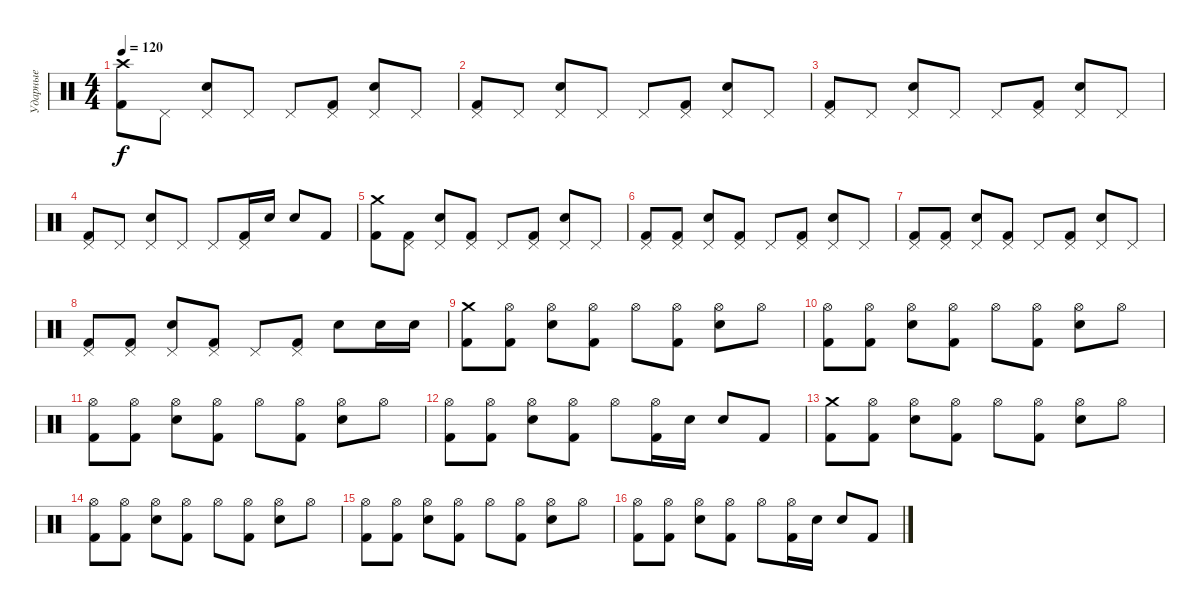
\track ("Ударные" "Ударные") {instrument percussion}
\staff {score}
\articulation defaults
\ts (4 4)
\tempo 120
\clef neutral
\ks c
("Crash high (hit)" "Kick (hit) 2").8{dy f} "Pedal Hi-Hat (hit)".8 ("Pedal Hi-Hat (hit)" "Snare (hit) 2").8 "Pedal Hi-Hat (hit)".8 "Pedal Hi-Hat (hit)".8 ("Pedal Hi-Hat (hit)" "Kick (hit) 2").8 ("Pedal Hi-Hat (hit)" "Snare (hit) 2").8 "Pedal Hi-Hat (hit)".8 |
("Pedal Hi-Hat (hit)" "Kick (hit) 2").8 "Pedal Hi-Hat (hit)".8 ("Pedal Hi-Hat (hit)" "Snare (hit) 2").8 "Pedal Hi-Hat (hit)".8 "Pedal Hi-Hat (hit)".8 ("Pedal Hi-Hat (hit)" "Kick (hit) 2").8 ("Pedal Hi-Hat (hit)" "Snare (hit) 2").8 "Pedal Hi-Hat (hit)".8 |
("Pedal Hi-Hat (hit)" "Kick (hit) 2").8 "Pedal Hi-Hat (hit)".8 ("Pedal Hi-Hat (hit)" "Snare (hit) 2").8 "Pedal Hi-Hat (hit)".8 "Pedal Hi-Hat (hit)".8 ("Pedal Hi-Hat (hit)" "Kick (hit) 2").8 ("Pedal Hi-Hat (hit)" "Snare (hit) 2").8 "Pedal Hi-Hat (hit)".8 |
("Pedal Hi-Hat (hit)" "Kick (hit) 2").8 "Pedal Hi-Hat (hit)".8 ("Pedal Hi-Hat (hit)" "Snare (hit) 2").8 "Pedal Hi-Hat (hit)".8 "Pedal Hi-Hat (hit)".8 ("Pedal Hi-Hat (hit)" "Kick (hit) 2").16 "Snare (hit) 2".16 "Snare (hit) 2".8 "Kick (hit) 2".8 |
("Crash medium (hit)" "Kick (hit) 2").8 ("Pedal Hi-Hat (hit)" "Kick (hit) 2").8 ("Pedal Hi-Hat (hit)" "Snare (hit) 2").8 ("Pedal Hi-Hat (hit)" "Kick (hit) 2").8 "Pedal Hi-Hat (hit)".8 ("Pedal Hi-Hat (hit)" "Kick (hit) 2").8 ("Pedal Hi-Hat (hit)" "Snare (hit) 2").8 "Pedal Hi-Hat (hit)".8 |
("Pedal Hi-Hat (hit)" "Kick (hit) 2").8 ("Pedal Hi-Hat (hit)" "Kick (hit) 2").8 ("Pedal Hi-Hat (hit)" "Snare (hit) 2").8 ("Pedal Hi-Hat (hit)" "Kick (hit) 2").8 "Pedal Hi-Hat (hit)".8 ("Pedal Hi-Hat (hit)" "Kick (hit) 2").8 ("Pedal Hi-Hat (hit)" "Snare (hit) 2").8 "Pedal Hi-Hat (hit)".8 |
("Pedal Hi-Hat (hit)" "Kick (hit) 2").8 ("Pedal Hi-Hat (hit)" "Kick (hit) 2").8 ("Pedal Hi-Hat (hit)" "Snare (hit) 2").8 ("Pedal Hi-Hat (hit)" "Kick (hit) 2").8 "Pedal Hi-Hat (hit)".8 ("Pedal Hi-Hat (hit)" "Kick (hit) 2").8 ("Pedal Hi-Hat (hit)" "Snare (hit) 2").8 "Pedal Hi-Hat (hit)".8 |
("Pedal Hi-Hat (hit)" "Kick (hit) 2").8 ("Pedal Hi-Hat (hit)" "Kick (hit) 2").8 ("Pedal Hi-Hat (hit)" "Snare (hit) 2").8 ("Pedal Hi-Hat (hit)" "Kick (hit) 2").8 "Pedal Hi-Hat (hit)".8 ("Pedal Hi-Hat (hit)" "Kick (hit) 2").8 "Snare (hit) 2".8 "Snare (hit) 2".16 "Snare (hit) 2".16 |
("Crash medium (hit)" "Kick (hit) 2").8 ("Hi-Hat (open)" "Kick (hit) 2").8 ("Hi-Hat (open)" "Snare (hit) 2").8 ("Hi-Hat (open)" "Kick (hit) 2").8 "Hi-Hat (open)".8 ("Hi-Hat (open)" "Kick (hit) 2").8 ("Hi-Hat (open)" "Snare (hit) 2").8 "Hi-Hat (open)".8 |
("Hi-Hat (open)" "Kick (hit) 2").8 ("Hi-Hat (open)" "Kick (hit) 2").8 ("Hi-Hat (open)" "Snare (hit) 2").8 ("Hi-Hat (open)" "Kick (hit) 2").8 "Hi-Hat (open)".8 ("Hi-Hat (open)" "Kick (hit) 2").8 ("Hi-Hat (open)" "Snare (hit) 2").8 "Hi-Hat (open)".8 |
("Hi-Hat (open)" "Kick (hit) 2").8 ("Hi-Hat (open)" "Kick (hit) 2").8 ("Hi-Hat (open)" "Snare (hit) 2").8 ("Hi-Hat (open)" "Kick (hit) 2").8 "Hi-Hat (open)".8 ("Hi-Hat (open)" "Kick (hit) 2").8 ("Hi-Hat (open)" "Snare (hit) 2").8 "Hi-Hat (open)".8 |
("Hi-Hat (open)" "Kick (hit) 2").8 ("Hi-Hat (open)" "Kick (hit) 2").8 ("Hi-Hat (open)" "Snare (hit) 2").8 ("Hi-Hat (open)" "Kick (hit) 2").8 "Hi-Hat (open)".8 ("Hi-Hat (open)" "Kick (hit) 2").16 "Snare (hit) 2".16 "Snare (hit) 2".8 "Kick (hit) 2".8 |
("Crash medium (hit)" "Kick (hit) 2").8 ("Hi-Hat (open)" "Kick (hit) 2").8 ("Hi-Hat (open)" "Snare (hit) 2").8 ("Hi-Hat (open)" "Kick (hit) 2").8 "Hi-Hat (open)".8 ("Hi-Hat (open)" "Kick (hit) 2").8 ("Hi-Hat (open)" "Snare (hit) 2").8 "Hi-Hat (open)".8 |
("Hi-Hat (open)" "Kick (hit) 2").8 ("Hi-Hat (open)" "Kick (hit) 2").8 ("Hi-Hat (open)" "Snare (hit) 2").8 ("Hi-Hat (open)" "Kick (hit) 2").8 "Hi-Hat (open)".8 ("Hi-Hat (open)" "Kick (hit) 2").8 ("Hi-Hat (open)" "Snare (hit) 2").8 "Hi-Hat (open)".8 |
("Hi-Hat (open)" "Kick (hit) 2").8 ("Hi-Hat (open)" "Kick (hit) 2").8 ("Hi-Hat (open)" "Snare (hit) 2").8 ("Hi-Hat (open)" "Kick (hit) 2").8 "Hi-Hat (open)".8 ("Hi-Hat (open)" "Kick (hit) 2").8 ("Hi-Hat (open)" "Snare (hit) 2").8 "Hi-Hat (open)".8 |
("Hi-Hat (open)" "Kick (hit) 2").8 ("Hi-Hat (open)" "Kick (hit) 2").8 ("Hi-Hat (open)" "Snare (hit) 2").8 ("Hi-Hat (open)" "Kick (hit) 2").8 "Hi-Hat (open)".8 ("Hi-Hat (open)" "Kick (hit) 2").16 "Snare (hit) 2".16 "Snare (hit) 2".8 "Kick (hit) 2".8
